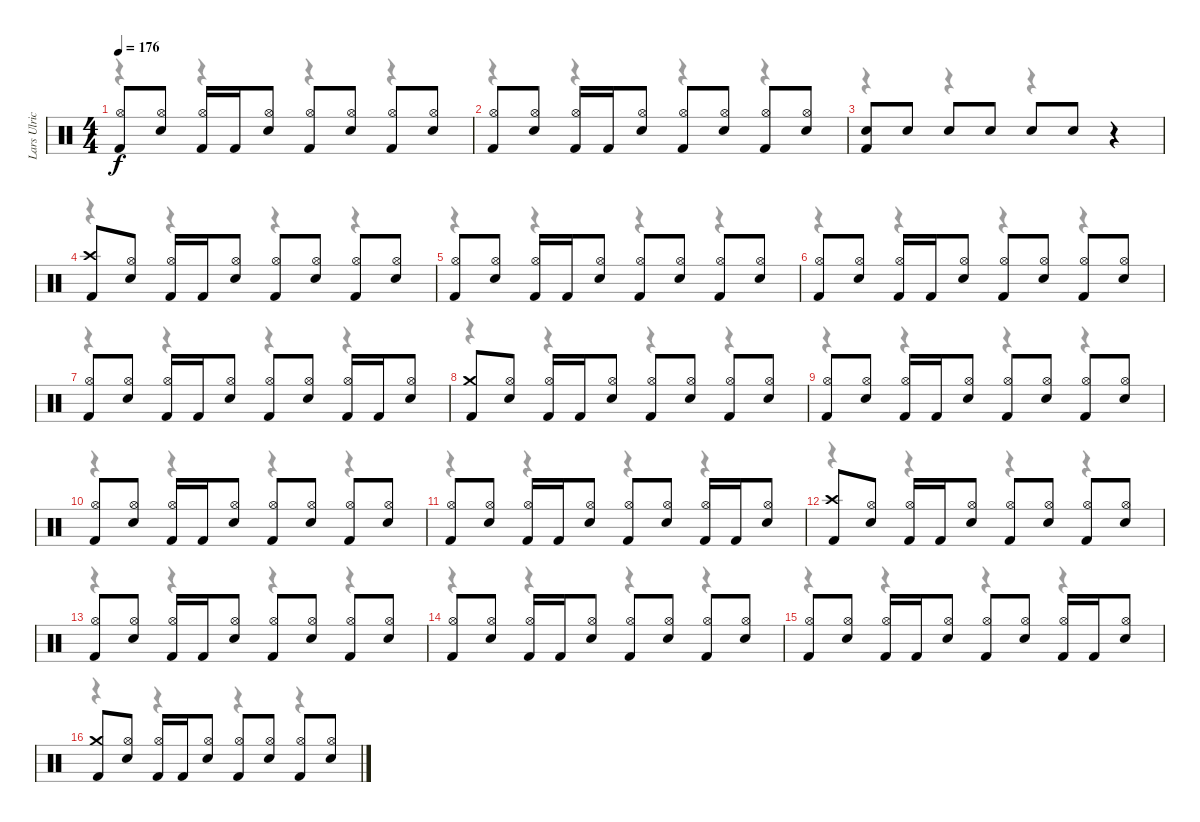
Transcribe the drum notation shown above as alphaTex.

\track ("Lars Ulrich" "Lars Ulric") {instrument percussion}
\staff {score}
\articulation defaults
\voice
\ts (4 4)
\tempo 176
\clef neutral
\ks c
("Hi-Hat (open)" "Kick (hit) 2").8{dy f} ("Hi-Hat (open)" "Snare (hit) 2").8 ("Hi-Hat (open)" "Kick (hit) 2").16 "Kick (hit) 2".16 ("Hi-Hat (open)" "Snare (hit) 2").8 ("Hi-Hat (open)" "Kick (hit) 2").8 ("Hi-Hat (open)" "Snare (hit) 2").8 ("Hi-Hat (open)" "Kick (hit) 2").8 ("Hi-Hat (open)" "Snare (hit) 2").8 |
("Kick (hit) 2" "Hi-Hat (open)").8 ("Hi-Hat (open)" "Snare (hit) 2").8 ("Hi-Hat (open)" "Kick (hit) 2").16 "Kick (hit) 2".16 ("Hi-Hat (open)" "Snare (hit) 2").8 ("Hi-Hat (open)" "Kick (hit) 2").8 ("Hi-Hat (open)" "Snare (hit) 2").8 ("Hi-Hat (open)" "Kick (hit) 2").8 ("Hi-Hat (open)" "Snare (hit) 2").8 |
("Kick (hit) 2" "Snare (hit) 2").8 "Snare (hit) 2".8 "Snare (hit) 2".8 "Snare (hit) 2".8 "Snare (hit) 2".8 "Snare (hit) 2".8 r.4 |
("Crash high (hit)" "Kick (hit) 2").8 ("Hi-Hat (open)" "Snare (hit) 2").8 ("Hi-Hat (open)" "Kick (hit) 2").16 "Kick (hit) 2".16 ("Hi-Hat (open)" "Snare (hit) 2").8 ("Hi-Hat (open)" "Kick (hit) 2").8 ("Hi-Hat (open)" "Snare (hit) 2").8 ("Hi-Hat (open)" "Kick (hit) 2").8 ("Hi-Hat (open)" "Snare (hit) 2").8 |
("Hi-Hat (open)" "Kick (hit) 2").8 ("Hi-Hat (open)" "Snare (hit) 2").8 ("Hi-Hat (open)" "Kick (hit) 2").16 "Kick (hit) 2".16 ("Hi-Hat (open)" "Snare (hit) 2").8 ("Hi-Hat (open)" "Kick (hit) 2").8 ("Hi-Hat (open)" "Snare (hit) 2").8 ("Hi-Hat (open)" "Kick (hit) 2").8 ("Hi-Hat (open)" "Snare (hit) 2").8 |
("Kick (hit) 2" "Hi-Hat (open)").8 ("Hi-Hat (open)" "Snare (hit) 2").8 ("Hi-Hat (open)" "Kick (hit) 2").16 "Kick (hit) 2".16 ("Hi-Hat (open)" "Snare (hit) 2").8 ("Hi-Hat (open)" "Kick (hit) 2").8 ("Hi-Hat (open)" "Snare (hit) 2").8 ("Hi-Hat (open)" "Kick (hit) 2").8 ("Hi-Hat (open)" "Snare (hit) 2").8 |
("Kick (hit) 2" "Hi-Hat (open)").8 ("Hi-Hat (open)" "Snare (hit) 2").8 ("Hi-Hat (open)" "Kick (hit) 2").16 "Kick (hit) 2".16 ("Hi-Hat (open)" "Snare (hit) 2").8 ("Hi-Hat (open)" "Kick (hit) 2").8 ("Hi-Hat (open)" "Snare (hit) 2").8 ("Hi-Hat (open)" "Kick (hit) 2").16 "Kick (hit) 2".16 ("Hi-Hat (open)" "Snare (hit) 2").8 |
("Kick (hit) 2" "Crash medium (hit)").8 ("Hi-Hat (open)" "Snare (hit) 2").8 ("Hi-Hat (open)" "Kick (hit) 2").16 "Kick (hit) 2".16 ("Hi-Hat (open)" "Snare (hit) 2").8 ("Hi-Hat (open)" "Kick (hit) 2").8 ("Hi-Hat (open)" "Snare (hit) 2").8 ("Hi-Hat (open)" "Kick (hit) 2").8 ("Hi-Hat (open)" "Snare (hit) 2").8 |
("Hi-Hat (open)" "Kick (hit) 2").8 ("Hi-Hat (open)" "Snare (hit) 2").8 ("Hi-Hat (open)" "Kick (hit) 2").16 "Kick (hit) 2".16 ("Hi-Hat (open)" "Snare (hit) 2").8 ("Hi-Hat (open)" "Kick (hit) 2").8 ("Hi-Hat (open)" "Snare (hit) 2").8 ("Hi-Hat (open)" "Kick (hit) 2").8 ("Hi-Hat (open)" "Snare (hit) 2").8 |
("Kick (hit) 2" "Hi-Hat (open)").8 ("Hi-Hat (open)" "Snare (hit) 2").8 ("Hi-Hat (open)" "Kick (hit) 2").16 "Kick (hit) 2".16 ("Hi-Hat (open)" "Snare (hit) 2").8 ("Hi-Hat (open)" "Kick (hit) 2").8 ("Hi-Hat (open)" "Snare (hit) 2").8 ("Hi-Hat (open)" "Kick (hit) 2").8 ("Hi-Hat (open)" "Snare (hit) 2").8 |
("Kick (hit) 2" "Hi-Hat (open)").8 ("Hi-Hat (open)" "Snare (hit) 2").8 ("Hi-Hat (open)" "Kick (hit) 2").16 "Kick (hit) 2".16 ("Hi-Hat (open)" "Snare (hit) 2").8 ("Hi-Hat (open)" "Kick (hit) 2").8 ("Hi-Hat (open)" "Snare (hit) 2").8 ("Hi-Hat (open)" "Kick (hit) 2").16 "Kick (hit) 2".16 ("Hi-Hat (open)" "Snare (hit) 2").8 |
("Crash high (hit)" "Kick (hit) 2").8 ("Hi-Hat (open)" "Snare (hit) 2").8 ("Hi-Hat (open)" "Kick (hit) 2").16 "Kick (hit) 2".16 ("Hi-Hat (open)" "Snare (hit) 2").8 ("Hi-Hat (open)" "Kick (hit) 2").8 ("Hi-Hat (open)" "Snare (hit) 2").8 ("Hi-Hat (open)" "Kick (hit) 2").8 ("Hi-Hat (open)" "Snare (hit) 2").8 |
("Hi-Hat (open)" "Kick (hit) 2").8 ("Hi-Hat (open)" "Snare (hit) 2").8 ("Hi-Hat (open)" "Kick (hit) 2").16 "Kick (hit) 2".16 ("Hi-Hat (open)" "Snare (hit) 2").8 ("Hi-Hat (open)" "Kick (hit) 2").8 ("Hi-Hat (open)" "Snare (hit) 2").8 ("Hi-Hat (open)" "Kick (hit) 2").8 ("Hi-Hat (open)" "Snare (hit) 2").8 |
("Kick (hit) 2" "Hi-Hat (open)").8 ("Hi-Hat (open)" "Snare (hit) 2").8 ("Hi-Hat (open)" "Kick (hit) 2").16 "Kick (hit) 2".16 ("Hi-Hat (open)" "Snare (hit) 2").8 ("Hi-Hat (open)" "Kick (hit) 2").8 ("Hi-Hat (open)" "Snare (hit) 2").8 ("Hi-Hat (open)" "Kick (hit) 2").8 ("Hi-Hat (open)" "Snare (hit) 2").8 |
("Kick (hit) 2" "Hi-Hat (open)").8 ("Hi-Hat (open)" "Snare (hit) 2").8 ("Hi-Hat (open)" "Kick (hit) 2").16 "Kick (hit) 2".16 ("Hi-Hat (open)" "Snare (hit) 2").8 ("Hi-Hat (open)" "Kick (hit) 2").8 ("Hi-Hat (open)" "Snare (hit) 2").8 ("Hi-Hat (open)" "Kick (hit) 2").16 "Kick (hit) 2".16 ("Hi-Hat (open)" "Snare (hit) 2").8 |
("Kick (hit) 2" "Crash medium (hit)").8 ("Hi-Hat (open)" "Snare (hit) 2").8 ("Hi-Hat (open)" "Kick (hit) 2").16 "Kick (hit) 2".16 ("Hi-Hat (open)" "Snare (hit) 2").8 ("Hi-Hat (open)" "Kick (hit) 2").8 ("Hi-Hat (open)" "Snare (hit) 2").8 ("Hi-Hat (open)" "Kick (hit) 2").8 ("Hi-Hat (open)" "Snare (hit) 2").8
\voice
\clef neutral
\ottava regular
\simile none
\ks c
r.4{dy f} r.4 r.4 r.4 |
r.4 r.4 r.4 r.4 |
r.4 r.4 r.4 r.4 |
r.4 r.4 r.4 r.4 |
r.4 r.4 r.4 r.4 |
r.4 r.4 r.4 r.4 |
r.4 r.4 r.4 r.4 |
r.4 r.4 r.4 r.4 |
r.4 r.4 r.4 r.4 |
r.4 r.4 r.4 r.4 |
r.4 r.4 r.4 r.4 |
r.4 r.4 r.4 r.4 |
r.4 r.4 r.4 r.4 |
r.4 r.4 r.4 r.4 |
r.4 r.4 r.4 r.4 |
r.4 r.4 r.4 r.4
